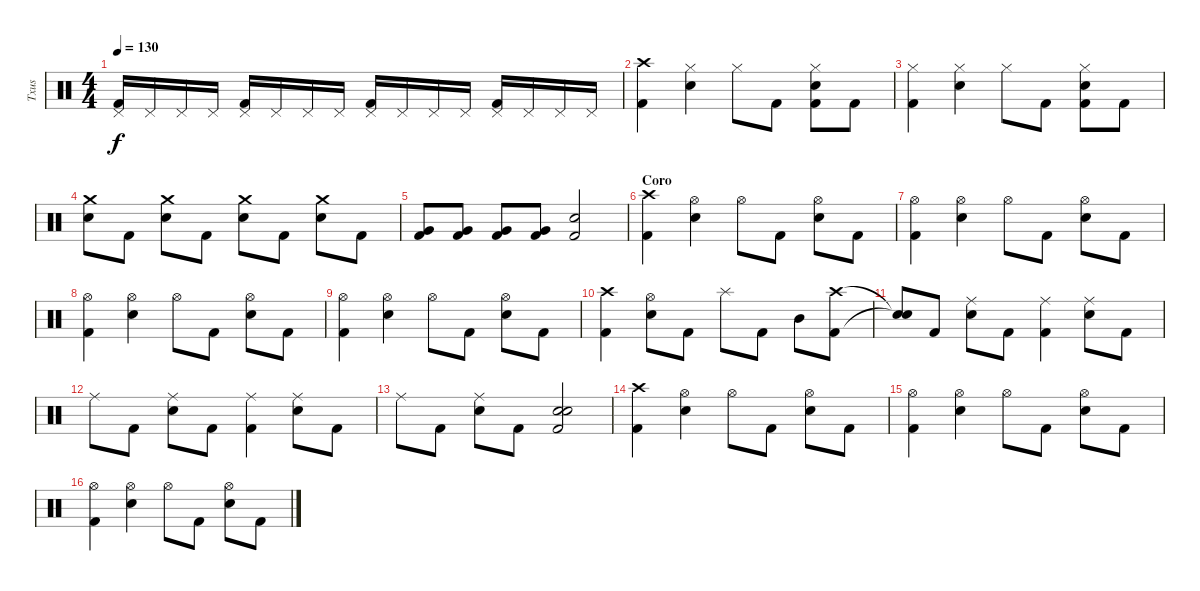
\track ("Txus" "Txus") {instrument percussion}
\staff {score}
\articulation defaults
\ts (4 4)
\tempo 130
\clef neutral
\ks c
("Kick (hit) 2" "Pedal Hi-Hat (hit)").16{dy f} "Pedal Hi-Hat (hit)".16 "Pedal Hi-Hat (hit)".16 "Pedal Hi-Hat (hit)".16 ("Kick (hit) 2" "Pedal Hi-Hat (hit)").16 "Pedal Hi-Hat (hit)".16 "Pedal Hi-Hat (hit)".16 "Pedal Hi-Hat (hit)".16 ("Kick (hit) 2" "Pedal Hi-Hat (hit)").16 "Pedal Hi-Hat (hit)".16 "Pedal Hi-Hat (hit)".16 "Pedal Hi-Hat (hit)".16 ("Kick (hit) 2" "Pedal Hi-Hat (hit)").16 "Pedal Hi-Hat (hit)".16 "Pedal Hi-Hat (hit)".16 "Pedal Hi-Hat (hit)".16 |
("Kick (hit) 2" "Crash high (hit)").4{volume 16} ("Electric Snare (hit)" "Hi-Hat (closed)").4 "Hi-Hat (closed)".8 "Kick (hit) 2".8 ("Kick (hit) 2" "Electric Snare (hit)" "Hi-Hat (closed)").8 "Kick (hit) 2".8 |
("Kick (hit) 2" "Hi-Hat (closed)").4 ("Electric Snare (hit)" "Hi-Hat (closed)").4 "Hi-Hat (closed)".8 "Kick (hit) 2".8 ("Kick (hit) 2" "Electric Snare (hit)" "Hi-Hat (closed)").8 "Kick (hit) 2".8 |
("Electric Snare (hit)" "Crash medium (hit)").8 "Kick (hit) 2".8 ("Electric Snare (hit)" "Crash medium (hit)").8 "Kick (hit) 2".8 ("Electric Snare (hit)" "Crash medium (hit)").8 "Kick (hit) 2".8 ("Electric Snare (hit)" "Crash medium (hit)").8 "Kick (hit) 2".8 |
("Kick (hit) 2" "Very Low Tom (hit)").8 ("Kick (hit) 2" "Very Low Tom (hit)").8 ("Kick (hit) 2" "Very Low Tom (hit)").8 ("Kick (hit) 2" "Very Low Tom (hit)").8 ("Kick (hit) 2" "Electric Snare (hit)").2 |
\section ("" "Coro")
("Kick (hit) 2" "Crash high (hit)").4 ("Electric Snare (hit)" "Hi-Hat (open)").4 "Hi-Hat (open)".8 "Kick (hit) 2".8 ("Electric Snare (hit)" "Hi-Hat (open)").8 "Kick (hit) 2".8 |
("Kick (hit) 2" "Hi-Hat (open)").4 ("Electric Snare (hit)" "Hi-Hat (open)").4 "Hi-Hat (open)".8 "Kick (hit) 2".8 ("Electric Snare (hit)" "Hi-Hat (open)").8 "Kick (hit) 2".8 |
("Kick (hit) 2" "Hi-Hat (open)").4 ("Electric Snare (hit)" "Hi-Hat (open)").4 "Hi-Hat (open)".8 "Kick (hit) 2".8 ("Electric Snare (hit)" "Hi-Hat (open)").8 "Kick (hit) 2".8 |
("Kick (hit) 2" "Hi-Hat (open)").4 ("Electric Snare (hit)" "Hi-Hat (open)").4 "Hi-Hat (open)".8 "Kick (hit) 2".8 ("Electric Snare (hit)" "Hi-Hat (open)").8 "Kick (hit) 2".8 |
("Kick (hit) 2" "Crash high (hit)").4 ("Electric Snare (hit)" "Hi-Hat (open)").8 "Kick (hit) 2".8 "Splash (hit)".8 "Kick (hit) 2".8 "Mid Tom (hit)".8 ("Kick (hit) 2" "Crash high (hit)").8 |
("Snare (hit)"{t} "Snare (hit)"{t}).8 "Kick (hit) 2".8 ("Electric Snare (hit)" "Ride (middle)").8 "Kick (hit) 2".8 ("Kick (hit) 2" "Ride (middle)").4 ("Electric Snare (hit)" "Ride (middle)").8 "Kick (hit) 2".8 |
"Ride (middle)".8 "Kick (hit) 2".8 ("Electric Snare (hit)" "Ride (middle)").8 "Kick (hit) 2".8 ("Kick (hit) 2" "Ride (middle)").4 ("Electric Snare (hit)" "Ride (middle)").8 "Kick (hit) 2".8 |
"Ride (middle)".8 "Kick (hit) 2".8 ("Electric Snare (hit)" "Ride (middle)").8 "Kick (hit) 2".8 ("Kick (hit) 2" "Electric Snare (hit)" "Snare (hit) 2").2 |
("Kick (hit) 2" "Crash high (hit)").4 ("Electric Snare (hit)" "Hi-Hat (open)").4 "Hi-Hat (open)".8 "Kick (hit) 2".8 ("Electric Snare (hit)" "Hi-Hat (open)").8 "Kick (hit) 2".8 |
("Kick (hit) 2" "Hi-Hat (open)").4 ("Electric Snare (hit)" "Hi-Hat (open)").4 "Hi-Hat (open)".8 "Kick (hit) 2".8 ("Electric Snare (hit)" "Hi-Hat (open)").8 "Kick (hit) 2".8 |
("Kick (hit) 2" "Hi-Hat (open)").4 ("Electric Snare (hit)" "Hi-Hat (open)").4 "Hi-Hat (open)".8 "Kick (hit) 2".8 ("Electric Snare (hit)" "Hi-Hat (open)").8 "Kick (hit) 2".8
